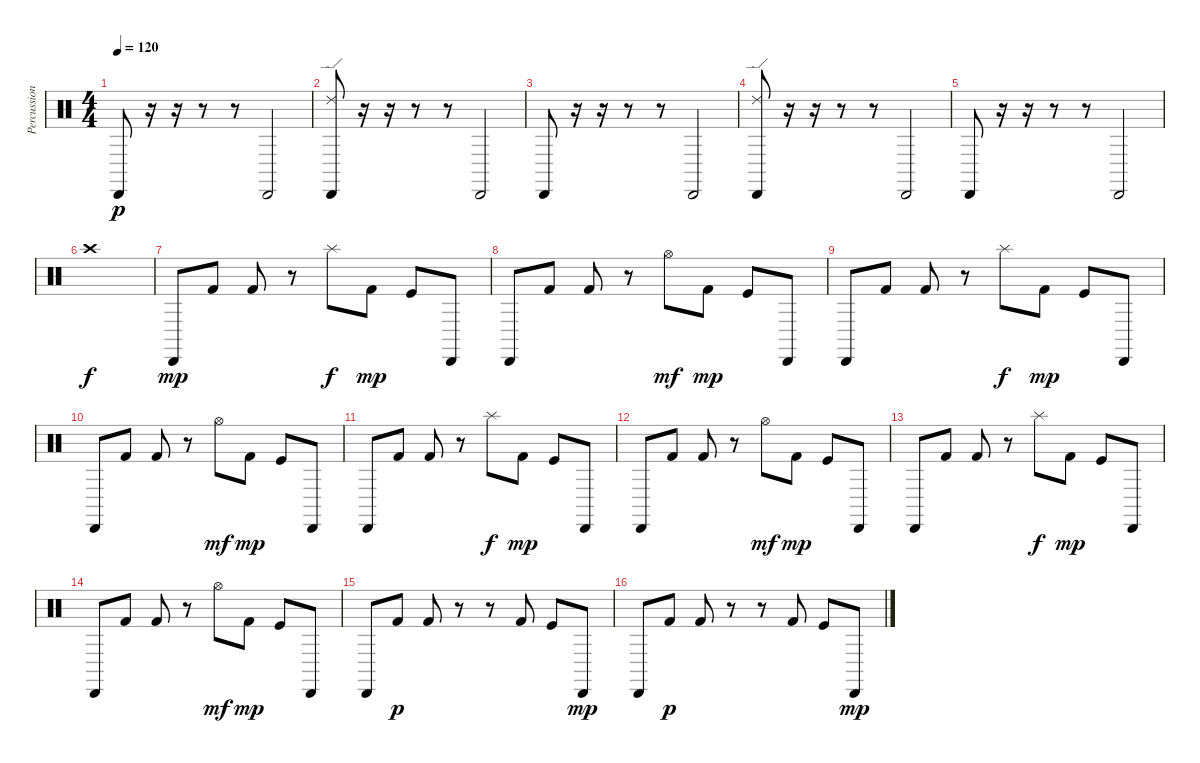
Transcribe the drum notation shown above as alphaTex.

\track ("Percussions" "Percussion") {instrument percussion}
\staff {score}
\articulation defaults
\ts (4 4)
\tempo 120
\clef neutral
\ks c "Cabasa (hit)".8{dy p}
r.16 r.16 r.8 r.8 "Cabasa (hit)".2 |
("Cabasa (hit)" "Ride (edge) 2").8 r.16 r.16 r.8 r.8 "Cabasa (hit)".2 |
"Cabasa (hit)".8 r.16 r.16 r.8 r.8 "Cabasa (hit)".2 |
("Cabasa (hit)" "Ride (edge) 2").8 r.16 r.16 r.8 r.8 "Cabasa (hit)".2 |
"Cabasa (hit)".8 r.16 r.16 r.8 r.8 "Cabasa (hit)".2 |
"Crash high (hit)".1{dy f} |
"Cabasa (hit)".8{dy mp} "Kick (hit) 2".8 "Kick (hit) 2".8 r.8 "Splash (hit)".8{dy f} "Kick (hit) 2".8{dy mp} "Kick (hit)".8 "Cabasa (hit)".8 |
"Cabasa (hit)".8 "Kick (hit) 2".8 "Kick (hit) 2".8 r.8 "Hi-Hat (open)".8{dy mf} "Kick (hit) 2".8{dy mp} "Kick (hit)".8 "Cabasa (hit)".8 |
"Cabasa (hit)".8 "Kick (hit) 2".8 "Kick (hit) 2".8 r.8 "Splash (hit)".8{dy f} "Kick (hit) 2".8{dy mp} "Kick (hit)".8 "Cabasa (hit)".8 |
"Cabasa (hit)".8 "Kick (hit) 2".8 "Kick (hit) 2".8 r.8 "Hi-Hat (open)".8{dy mf} "Kick (hit) 2".8{dy mp} "Kick (hit)".8 "Cabasa (hit)".8 |
"Cabasa (hit)".8 "Kick (hit) 2".8 "Kick (hit) 2".8 r.8 "Splash (hit)".8{dy f} "Kick (hit) 2".8{dy mp} "Kick (hit)".8 "Cabasa (hit)".8 |
"Cabasa (hit)".8 "Kick (hit) 2".8 "Kick (hit) 2".8 r.8 "Hi-Hat (open)".8{dy mf} "Kick (hit) 2".8{dy mp} "Kick (hit)".8 "Cabasa (hit)".8 |
"Cabasa (hit)".8 "Kick (hit) 2".8 "Kick (hit) 2".8 r.8 "Splash (hit)".8{dy f} "Kick (hit) 2".8{dy mp} "Kick (hit)".8 "Cabasa (hit)".8 |
"Cabasa (hit)".8 "Kick (hit) 2".8 "Kick (hit) 2".8 r.8 "Hi-Hat (open)".8{dy mf} "Kick (hit) 2".8{dy mp} "Kick (hit)".8 "Cabasa (hit)".8 |
"Cabasa (hit)".8 "Kick (hit) 2".8{dy p} "Kick (hit) 2".8 r.8 r.8 "Kick (hit) 2".8 "Kick (hit)".8 "Cabasa (hit)".8{dy mp} |
"Cabasa (hit)".8 "Kick (hit) 2".8{dy p} "Kick (hit) 2".8 r.8 r.8 "Kick (hit) 2".8 "Kick (hit)".8 "Cabasa (hit)".8{dy mp}
